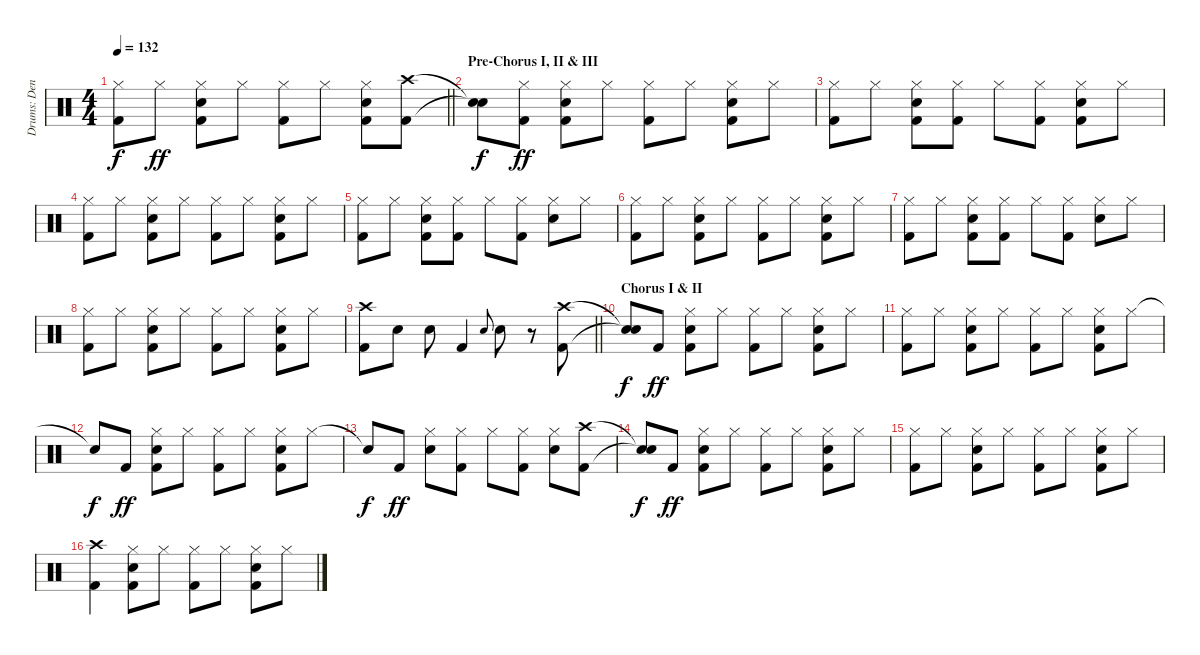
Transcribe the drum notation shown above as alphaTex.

\track ("Drums: Denny" "Drums: Den") {instrument percussion}
\staff {score}
\articulation defaults
\ts (4 4)
\tempo 132
\clef neutral
\barLineRight lightlight
\ks c
("Hi-Hat (closed)" "Kick (hit) 2").8{dy f} "Hi-Hat (closed)".8{dy ff} ("Hi-Hat (closed)" "Electric Snare (hit)" "Kick (hit) 2").8 "Hi-Hat (closed)".8 ("Hi-Hat (closed)" "Kick (hit) 2").8 "Hi-Hat (closed)".8 ("Hi-Hat (closed)" "Electric Snare (hit)" "Kick (hit) 2").8 ("Crash high (hit)" "Kick (hit) 2").8 |
\section ("" "Pre-Chorus I, II & III")
("Snare (hit)"{t} "Snare (hit)"{t}).8{dy f} ("Hi-Hat (closed)" "Kick (hit) 2").8{dy ff} ("Hi-Hat (closed)" "Electric Snare (hit)" "Kick (hit) 2").8 "Hi-Hat (closed)".8 ("Hi-Hat (closed)" "Kick (hit) 2").8 "Hi-Hat (closed)".8 ("Hi-Hat (closed)" "Electric Snare (hit)" "Kick (hit) 2").8 "Hi-Hat (closed)".8 |
("Hi-Hat (closed)" "Kick (hit) 2").8 "Hi-Hat (closed)".8 ("Hi-Hat (closed)" "Electric Snare (hit)" "Kick (hit) 2").8 ("Hi-Hat (closed)" "Kick (hit) 2").8 "Hi-Hat (closed)".8 ("Hi-Hat (closed)" "Kick (hit) 2").8 ("Hi-Hat (closed)" "Electric Snare (hit)" "Kick (hit) 2").8 "Hi-Hat (closed)".8 |
("Hi-Hat (closed)" "Kick (hit) 2").8 "Hi-Hat (closed)".8 ("Hi-Hat (closed)" "Electric Snare (hit)" "Kick (hit) 2").8 "Hi-Hat (closed)".8 ("Hi-Hat (closed)" "Kick (hit) 2").8 "Hi-Hat (closed)".8 ("Hi-Hat (closed)" "Electric Snare (hit)" "Kick (hit) 2").8 "Hi-Hat (closed)".8 |
("Hi-Hat (closed)" "Kick (hit) 2").8 "Hi-Hat (closed)".8 ("Hi-Hat (closed)" "Electric Snare (hit)" "Kick (hit) 2").8 ("Hi-Hat (closed)" "Kick (hit) 2").8 "Hi-Hat (closed)".8 ("Hi-Hat (closed)" "Kick (hit) 2").8 ("Hi-Hat (closed)" "Electric Snare (hit)").8 "Hi-Hat (closed)".8 |
("Hi-Hat (closed)" "Kick (hit) 2").8 "Hi-Hat (closed)".8 ("Hi-Hat (closed)" "Electric Snare (hit)" "Kick (hit) 2").8 "Hi-Hat (closed)".8 ("Hi-Hat (closed)" "Kick (hit) 2").8 "Hi-Hat (closed)".8 ("Hi-Hat (closed)" "Electric Snare (hit)" "Kick (hit) 2").8 "Hi-Hat (closed)".8 |
("Hi-Hat (closed)" "Kick (hit) 2").8 "Hi-Hat (closed)".8 ("Hi-Hat (closed)" "Electric Snare (hit)" "Kick (hit) 2").8 ("Hi-Hat (closed)" "Kick (hit) 2").8 "Hi-Hat (closed)".8 ("Hi-Hat (closed)" "Kick (hit) 2").8 ("Hi-Hat (closed)" "Electric Snare (hit)").8 "Hi-Hat (closed)".8 |
("Hi-Hat (closed)" "Kick (hit) 2").8 "Hi-Hat (closed)".8 ("Hi-Hat (closed)" "Electric Snare (hit)" "Kick (hit) 2").8 "Hi-Hat (closed)".8 ("Hi-Hat (closed)" "Kick (hit) 2").8 "Hi-Hat (closed)".8 ("Hi-Hat (closed)" "Electric Snare (hit)" "Kick (hit) 2").8 "Hi-Hat (closed)".8 |
\barLineRight lightlight
("Crash high (hit)" "Kick (hit) 2").8 "Electric Snare (hit)".8 "Electric Snare (hit)".8 "Kick (hit) 2".4 "Snare (hit) 2".8{gr onbeat} "Electric Snare (hit)".8 r.8 ("Crash high (hit)" "Kick (hit) 2").8 |
\section ("" "Chorus I & II")
("Snare (hit)"{t} "Snare (hit)"{t}).8{dy f} "Kick (hit) 2".8{dy ff} ("Hi-Hat (closed)" "Electric Snare (hit)" "Kick (hit) 2").8 "Hi-Hat (closed)".8 ("Hi-Hat (closed)" "Kick (hit) 2").8 "Hi-Hat (closed)".8 ("Hi-Hat (closed)" "Electric Snare (hit)" "Kick (hit) 2").8 "Hi-Hat (closed)".8 |
("Hi-Hat (closed)" "Kick (hit) 2").8 "Hi-Hat (closed)".8 ("Hi-Hat (closed)" "Electric Snare (hit)" "Kick (hit) 2").8 "Hi-Hat (closed)".8 ("Hi-Hat (closed)" "Kick (hit) 2").8 "Hi-Hat (closed)".8 ("Hi-Hat (closed)" "Electric Snare (hit)" "Kick (hit) 2").8 "Hi-Hat (closed)".8 |
"Snare (hit)"{t}.8{dy f} "Kick (hit) 2".8{dy ff} ("Hi-Hat (closed)" "Electric Snare (hit)" "Kick (hit) 2").8 "Hi-Hat (closed)".8 ("Hi-Hat (closed)" "Kick (hit) 2").8 "Hi-Hat (closed)".8 ("Hi-Hat (closed)" "Electric Snare (hit)" "Kick (hit) 2").8 "Hi-Hat (closed)".8 |
"Snare (hit)"{t}.8{dy f} "Kick (hit) 2".8{dy ff} ("Hi-Hat (closed)" "Electric Snare (hit)").8 ("Hi-Hat (closed)" "Kick (hit) 2").8 "Hi-Hat (closed)".8 ("Hi-Hat (closed)" "Kick (hit) 2").8 ("Hi-Hat (closed)" "Electric Snare (hit)").8 ("Crash high (hit)" "Kick (hit) 2").8 |
("Snare (hit)"{t} "Snare (hit)"{t}).8{dy f} "Kick (hit) 2".8{dy ff} ("Hi-Hat (closed)" "Electric Snare (hit)" "Kick (hit) 2").8 "Hi-Hat (closed)".8 ("Hi-Hat (closed)" "Kick (hit) 2").8 "Hi-Hat (closed)".8 ("Hi-Hat (closed)" "Electric Snare (hit)" "Kick (hit) 2").8 "Hi-Hat (closed)".8 |
("Hi-Hat (closed)" "Kick (hit) 2").8 "Hi-Hat (closed)".8 ("Hi-Hat (closed)" "Electric Snare (hit)" "Kick (hit) 2").8 "Hi-Hat (closed)".8 ("Hi-Hat (closed)" "Kick (hit) 2").8 "Hi-Hat (closed)".8 ("Hi-Hat (closed)" "Electric Snare (hit)" "Kick (hit) 2").8 "Hi-Hat (closed)".8 |
("Crash high (hit)" "Kick (hit) 2").4 ("Hi-Hat (closed)" "Electric Snare (hit)" "Kick (hit) 2").8 "Hi-Hat (closed)".8 ("Hi-Hat (closed)" "Kick (hit) 2").8 "Hi-Hat (closed)".8 ("Hi-Hat (closed)" "Electric Snare (hit)" "Kick (hit) 2").8 "Hi-Hat (closed)".8
